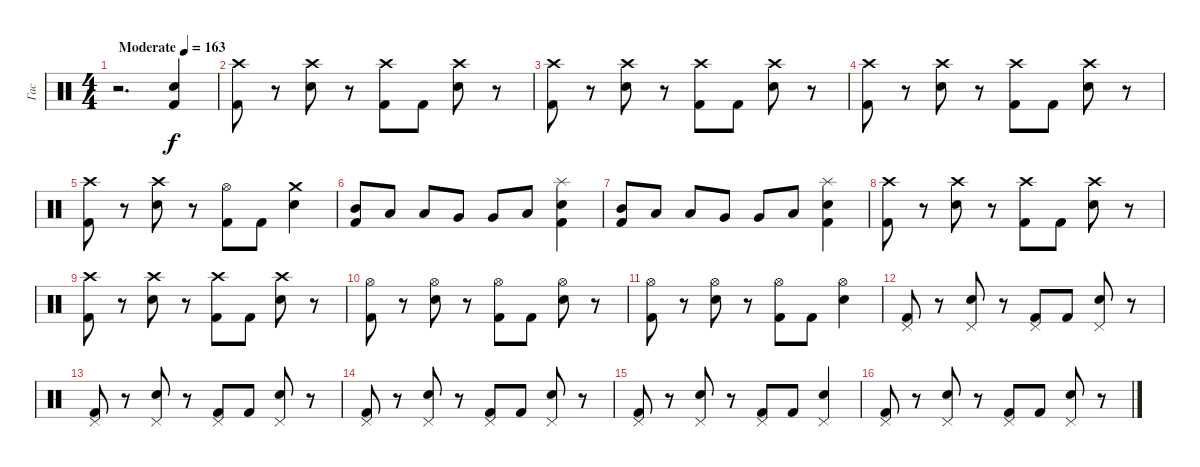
\track ("Гас" "Гас") {instrument percussion}
\staff {score}
\articulation defaults
\ts (4 4)
\tempo (163 "Moderate")
\clef neutral
\ks c
r.2{d dy f} ("Snare (hit) 2" "Kick (hit) 2").4 |
("Crash high (hit)" "Kick (hit) 2").8 r.8 ("Crash high (hit)" "Electric Snare (hit)").8 r.8 ("Crash high (hit)" "Kick (hit) 2").8 "Kick (hit) 2".8 ("Crash high (hit)" "Electric Snare (hit)").8 r.8 |
("Crash high (hit)" "Kick (hit) 2").8 r.8 ("Crash high (hit)" "Electric Snare (hit)").8 r.8 ("Crash high (hit)" "Kick (hit) 2").8 "Kick (hit) 2".8 ("Crash high (hit)" "Electric Snare (hit)").8 r.8 |
("Crash high (hit)" "Kick (hit) 2").8 r.8 ("Crash high (hit)" "Electric Snare (hit)").8 r.8 ("Crash high (hit)" "Kick (hit) 2").8 "Kick (hit) 2".8 ("Crash high (hit)" "Electric Snare (hit)").8 r.8 |
("Crash high (hit)" "Kick (hit) 2").8 r.8 ("Crash high (hit)" "Electric Snare (hit)").8 r.8 ("Hi-Hat (open)" "Kick (hit) 2").8 "Kick (hit) 2".8 ("Crash medium (hit)" "Electric Snare (hit)").4 |
("Kick (hit) 2" "Mid Tom (hit)").8 "Low Tom (hit)".8 "Low Tom (hit)".8 "Very Low Tom (hit)".8 "Very Low Tom (hit)".8 "Low Floor Tom (hit)".8 ("Splash (hit)" "Electric Snare (hit)" "Kick (hit) 2").4 |
("Kick (hit) 2" "Mid Tom (hit)").8 "Low Tom (hit)".8 "Low Tom (hit)".8 "Very Low Tom (hit)".8 "Very Low Tom (hit)".8 "Low Floor Tom (hit)".8 ("Splash (hit)" "Electric Snare (hit)" "Kick (hit) 2").4 |
("Crash high (hit)" "Kick (hit) 2").8 r.8 ("Crash high (hit)" "Electric Snare (hit)").8 r.8 ("Crash high (hit)" "Kick (hit) 2").8 "Kick (hit) 2".8 ("Crash high (hit)" "Electric Snare (hit)").8 r.8 |
("Crash high (hit)" "Kick (hit) 2").8 r.8 ("Crash high (hit)" "Electric Snare (hit)").8 r.8 ("Crash high (hit)" "Kick (hit) 2").8 "Kick (hit) 2".8 ("Crash high (hit)" "Electric Snare (hit)").8 r.8 |
("Hi-Hat (open)" "Kick (hit) 2").8 r.8 ("Hi-Hat (open)" "Electric Snare (hit)").8 r.8 ("Hi-Hat (open)" "Kick (hit) 2").8 "Kick (hit) 2".8 ("Hi-Hat (open)" "Electric Snare (hit)").8 r.8 |
("Hi-Hat (open)" "Kick (hit) 2").8 r.8 ("Hi-Hat (open)" "Electric Snare (hit)").8 r.8 ("Hi-Hat (open)" "Kick (hit) 2").8 "Kick (hit) 2".8 ("Hi-Hat (open)" "Electric Snare (hit)").4 |
("Pedal Hi-Hat (hit)" "Kick (hit) 2").8 r.8 ("Pedal Hi-Hat (hit)" "Electric Snare (hit)").8 r.8 ("Pedal Hi-Hat (hit)" "Kick (hit) 2").8 "Kick (hit) 2".8 ("Pedal Hi-Hat (hit)" "Electric Snare (hit)").8 r.8 |
("Pedal Hi-Hat (hit)" "Kick (hit) 2").8 r.8 ("Pedal Hi-Hat (hit)" "Electric Snare (hit)").8 r.8 ("Pedal Hi-Hat (hit)" "Kick (hit) 2").8 "Kick (hit) 2".8 ("Pedal Hi-Hat (hit)" "Electric Snare (hit)").8 r.8 |
("Pedal Hi-Hat (hit)" "Kick (hit) 2").8 r.8 ("Pedal Hi-Hat (hit)" "Electric Snare (hit)").8 r.8 ("Pedal Hi-Hat (hit)" "Kick (hit) 2").8 "Kick (hit) 2".8 ("Pedal Hi-Hat (hit)" "Electric Snare (hit)").8 r.8 |
("Pedal Hi-Hat (hit)" "Kick (hit) 2").8 r.8 ("Pedal Hi-Hat (hit)" "Electric Snare (hit)").8 r.8 ("Pedal Hi-Hat (hit)" "Kick (hit) 2").8 "Kick (hit) 2".8 ("Pedal Hi-Hat (hit)" "Electric Snare (hit)").4 |
("Pedal Hi-Hat (hit)" "Kick (hit) 2").8 r.8 ("Pedal Hi-Hat (hit)" "Electric Snare (hit)").8 r.8 ("Pedal Hi-Hat (hit)" "Kick (hit) 2").8 "Kick (hit) 2".8 ("Pedal Hi-Hat (hit)" "Electric Snare (hit)").8 r.8
